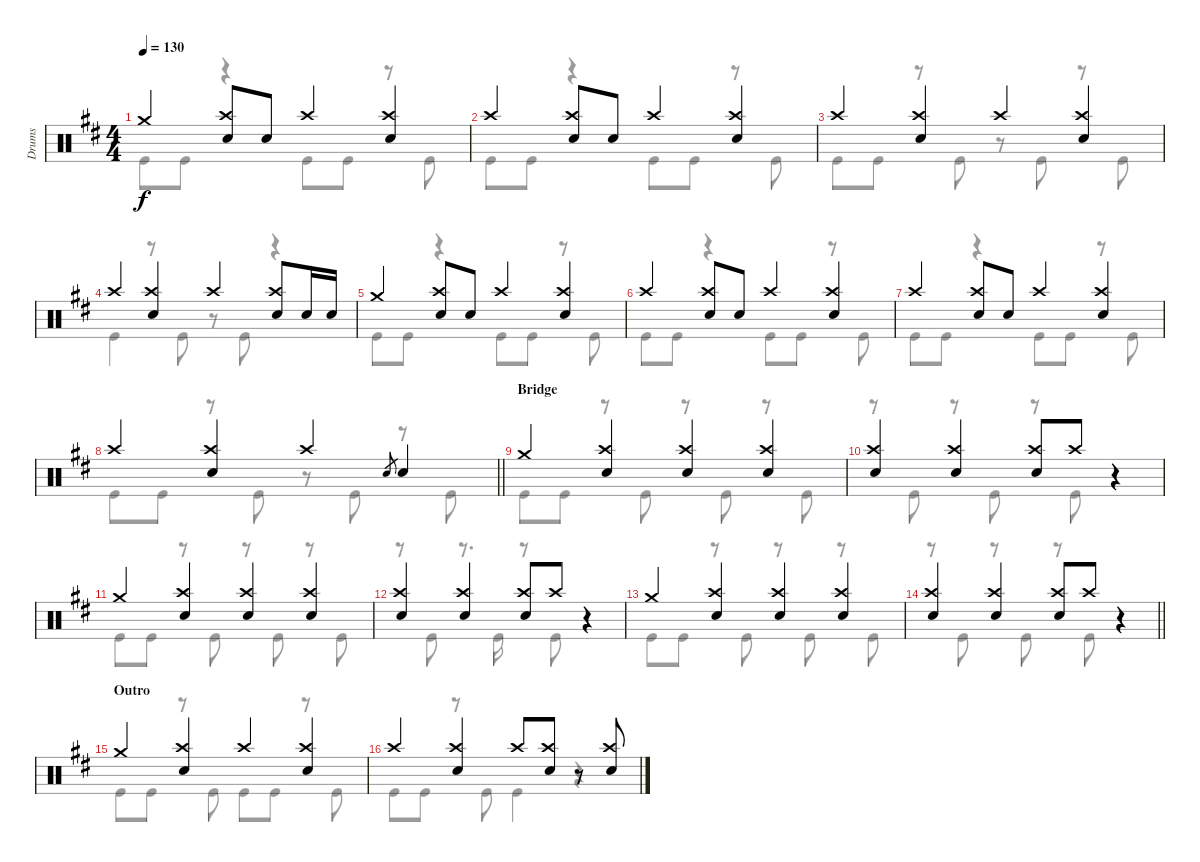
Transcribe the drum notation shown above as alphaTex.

\track ("Drums" "Drums") {instrument percussion}
\staff {score}
\articulation defaults
\voice
\ts (4 4)
\tempo 130
\clef neutral
\ks d "Crash medium (hit)".4{dy f}
("Crash high (hit)" "Electric Snare (hit)").8 "Electric Snare (hit)".8 "Crash high (hit)".4 ("Crash high (hit)" "Electric Snare (hit)").4 |
"Crash high (hit)".4 ("Crash high (hit)" "Electric Snare (hit)").8 "Electric Snare (hit)".8 "Crash high (hit)".4 ("Crash high (hit)" "Electric Snare (hit)").4 |
"Crash high (hit)".4 ("Crash high (hit)" "Electric Snare (hit)").4 "Crash high (hit)".4 ("Crash high (hit)" "Electric Snare (hit)").4 |
"Crash high (hit)".4 ("Crash high (hit)" "Electric Snare (hit)").4 "Crash high (hit)".4 ("Crash high (hit)" "Electric Snare (hit)").8 "Electric Snare (hit)".16 "Electric Snare (hit)".16 |
"Crash medium (hit)".4 ("Crash high (hit)" "Electric Snare (hit)").8 "Electric Snare (hit)".8 "Crash high (hit)".4 ("Crash high (hit)" "Electric Snare (hit)").4 |
"Crash high (hit)".4 ("Crash high (hit)" "Electric Snare (hit)").8 "Electric Snare (hit)".8 "Crash high (hit)".4 ("Crash high (hit)" "Electric Snare (hit)").4 |
"Crash high (hit)".4 ("Crash high (hit)" "Electric Snare (hit)").8 "Electric Snare (hit)".8 "Crash high (hit)".4 ("Crash high (hit)" "Electric Snare (hit)").4 |
\barLineRight lightlight "Crash high (hit)".4
("Crash high (hit)" "Electric Snare (hit)").4 "Crash high (hit)".4 "Electric Snare (hit)".8{gr} "Electric Snare (hit)".4 |
\section ("" "Bridge")
"Crash medium (hit)".4 ("Crash high (hit)" "Electric Snare (hit)").4 ("Crash high (hit)" "Electric Snare (hit)").4 ("Crash high (hit)" "Electric Snare (hit)").4 |
("Crash high (hit)" "Electric Snare (hit)").4 ("Crash high (hit)" "Electric Snare (hit)").4 ("Crash high (hit)" "Electric Snare (hit)").8 "Crash high (hit)".8 r.4 |
"Crash medium (hit)".4 ("Crash high (hit)" "Electric Snare (hit)").4 ("Crash high (hit)" "Electric Snare (hit)").4 ("Crash high (hit)" "Electric Snare (hit)").4 |
("Crash high (hit)" "Electric Snare (hit)").4 ("Crash high (hit)" "Electric Snare (hit)").4 ("Crash high (hit)" "Electric Snare (hit)").8 "Crash high (hit)".8 r.4 |
"Crash medium (hit)".4 ("Crash high (hit)" "Electric Snare (hit)").4 ("Crash high (hit)" "Electric Snare (hit)").4 ("Crash high (hit)" "Electric Snare (hit)").4 |
\barLineRight lightlight
("Crash high (hit)" "Electric Snare (hit)").4 ("Crash high (hit)" "Electric Snare (hit)").4 ("Crash high (hit)" "Electric Snare (hit)").8 "Crash high (hit)".8 r.4 |
\section ("" "Outro")
"Crash medium (hit)".4 ("Crash high (hit)" "Electric Snare (hit)").4 "Crash high (hit)".4 ("Crash high (hit)" "Electric Snare (hit)").4 |
"Crash high (hit)".4 ("Crash high (hit)" "Electric Snare (hit)").4 "Crash high (hit)".8 ("Crash high (hit)" "Electric Snare (hit)").8 r.8 ("Crash high (hit)" "Electric Snare (hit)").8
\voice
\clef neutral
\ottava regular
\simile none
\ks d "Kick (hit)".8{dy f} "Kick (hit)".8
r.4 "Kick (hit)".8 "Kick (hit)".8 r.8 "Kick (hit)".8 |
"Kick (hit)".8 "Kick (hit)".8 r.4 "Kick (hit)".8 "Kick (hit)".8 r.8 "Kick (hit)".8 |
"Kick (hit)".8 "Kick (hit)".8 r.8 "Kick (hit)".8 r.8 "Kick (hit)".8 r.8 "Kick (hit)".8 |
"Kick (hit)".4 r.8 "Kick (hit)".8 r.8 "Kick (hit)".8 r.4 |
"Kick (hit)".8 "Kick (hit)".8 r.4 "Kick (hit)".8 "Kick (hit)".8 r.8 "Kick (hit)".8 |
"Kick (hit)".8 "Kick (hit)".8 r.4 "Kick (hit)".8 "Kick (hit)".8 r.8 "Kick (hit)".8 |
"Kick (hit)".8 "Kick (hit)".8 r.4 "Kick (hit)".8 "Kick (hit)".8 r.8 "Kick (hit)".8 |
\barLineRight lightlight "Kick (hit)".8 "Kick (hit)".8
r.8 "Kick (hit)".8 r.8 "Kick (hit)".8 r.8 "Kick (hit)".8 |
"Kick (hit)".8 "Kick (hit)".8 r.8 "Kick (hit)".8 r.8 "Kick (hit)".8 r.8 "Kick (hit)".8 |
r.8 "Kick (hit)".8 r.8 "Kick (hit)".8 r.8 "Kick (hit)".8 r.4 |
"Kick (hit)".8 "Kick (hit)".8 r.8 "Kick (hit)".8 r.8 "Kick (hit)".8 r.8 "Kick (hit)".8 |
r.8 "Kick (hit)".8 r.8{d} "Kick (hit)".16 r.8 "Kick (hit)".8 r.4 |
"Kick (hit)".8 "Kick (hit)".8 r.8 "Kick (hit)".8 r.8 "Kick (hit)".8 r.8 "Kick (hit)".8 |
\barLineRight lightlight
r.8 "Kick (hit)".8 r.8 "Kick (hit)".8 r.8 "Kick (hit)".8 r.4 |
"Kick (hit)".8 "Kick (hit)".8 r.8 "Kick (hit)".8 "Kick (hit)".8 "Kick (hit)".8 r.8 "Kick (hit)".8 |
"Kick (hit)".8 "Kick (hit)".8 r.8 "Kick (hit)".8 "Kick (hit)".4 r.4
